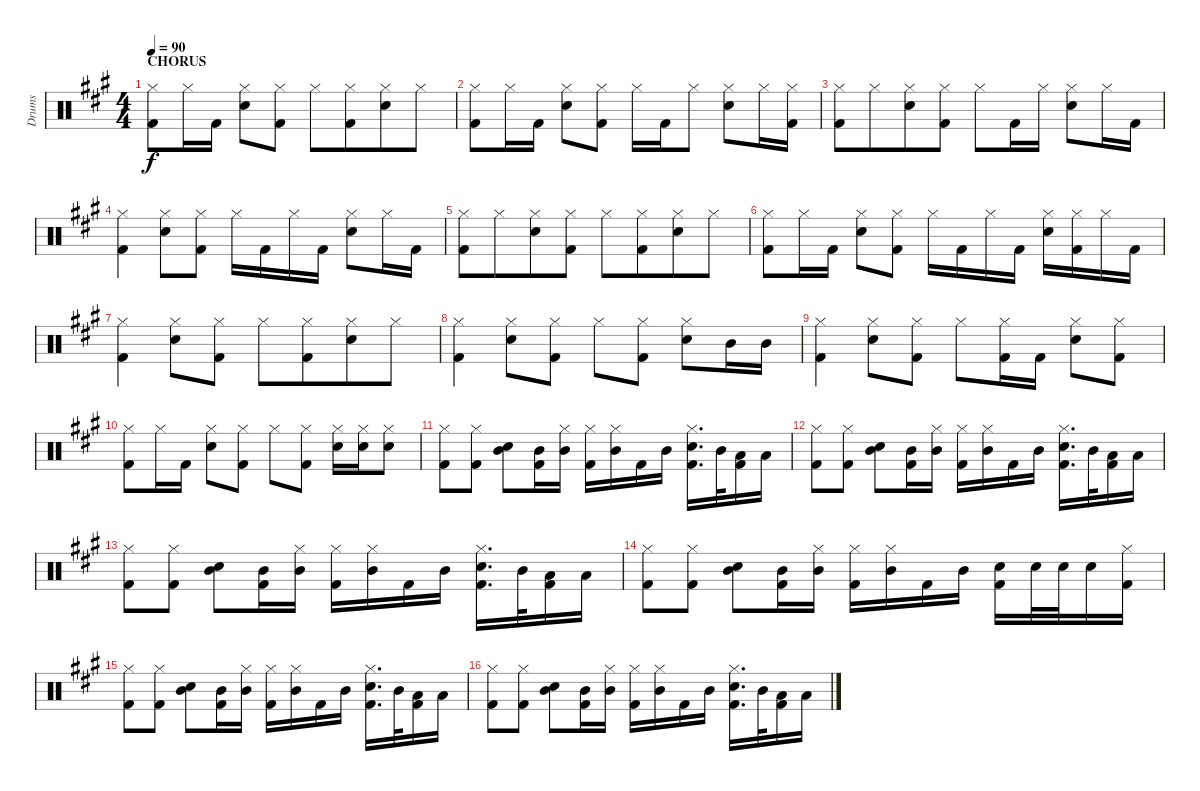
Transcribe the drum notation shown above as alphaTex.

\track ("Drums" "Drums") {instrument percussion}
\staff {score}
\articulation defaults
\ts (4 4)
\section ("" "CHORUS")
\tempo 90
\clef neutral
\ks f#minor
("Hi-Hat (closed)" "Kick (hit) 2").8{dy f} "Hi-Hat (closed)".16 "Kick (hit) 2".16 ("Hi-Hat (closed)" "Electric Snare (hit)").8 ("Hi-Hat (closed)" "Kick (hit) 2").8 "Hi-Hat (closed)".8 ("Hi-Hat (closed)" "Kick (hit) 2").8{beam merge} ("Hi-Hat (closed)" "Electric Snare (hit)").8 "Hi-Hat (closed)".8 |
("Hi-Hat (closed)" "Kick (hit) 2").8 "Hi-Hat (closed)".16 "Kick (hit) 2".16 ("Hi-Hat (closed)" "Electric Snare (hit)").8 ("Hi-Hat (closed)" "Kick (hit) 2").8 "Hi-Hat (closed)".16 "Kick (hit) 2".16 "Hi-Hat (closed)".8{beam split} ("Hi-Hat (closed)" "Electric Snare (hit)").8 "Hi-Hat (closed)".16 ("Hi-Hat (closed)" "Kick (hit) 2").16 |
("Hi-Hat (closed)" "Kick (hit) 2").8 "Hi-Hat (closed)".8{beam merge} ("Hi-Hat (closed)" "Electric Snare (hit)").8 ("Hi-Hat (closed)" "Kick (hit) 2").8 "Hi-Hat (closed)".8 "Kick (hit) 2".16 "Hi-Hat (closed)".16{beam split} ("Hi-Hat (closed)" "Electric Snare (hit)").8 "Hi-Hat (closed)".16 "Kick (hit) 2".16 |
("Hi-Hat (closed)" "Kick (hit) 2").4{beam merge} ("Hi-Hat (closed)" "Electric Snare (hit)").8 ("Hi-Hat (closed)" "Kick (hit) 2").8 "Hi-Hat (closed)".16 "Kick (hit) 2".16 "Hi-Hat (closed)".16 "Kick (hit) 2".16{beam split} ("Hi-Hat (closed)" "Electric Snare (hit)").8 "Hi-Hat (closed)".16 "Kick (hit) 2".16 |
("Hi-Hat (closed)" "Kick (hit) 2").8 "Hi-Hat (closed)".8{beam merge} ("Hi-Hat (closed)" "Electric Snare (hit)").8 ("Hi-Hat (closed)" "Kick (hit) 2").8 "Hi-Hat (closed)".8 ("Hi-Hat (closed)" "Kick (hit) 2").8{beam merge} ("Hi-Hat (closed)" "Electric Snare (hit)").8 "Hi-Hat (closed)".8 |
("Hi-Hat (closed)" "Kick (hit) 2").8 "Hi-Hat (closed)".16 "Kick (hit) 2".16 ("Hi-Hat (closed)" "Electric Snare (hit)").8 ("Hi-Hat (closed)" "Kick (hit) 2").8 "Hi-Hat (closed)".16 "Kick (hit) 2".16 "Hi-Hat (closed)".16 "Kick (hit) 2".16 ("Hi-Hat (closed)" "Electric Snare (hit)").16 ("Hi-Hat (closed)" "Kick (hit) 2").16 "Hi-Hat (closed)".16 "Kick (hit) 2".16 |
("Hi-Hat (closed)" "Kick (hit) 2").4 ("Hi-Hat (closed)" "Electric Snare (hit)").8 ("Hi-Hat (closed)" "Kick (hit) 2").8 "Hi-Hat (closed)".8 ("Hi-Hat (closed)" "Kick (hit) 2").8{beam merge} ("Hi-Hat (closed)" "Electric Snare (hit)").8 "Hi-Hat (closed)".8 |
("Hi-Hat (closed)" "Kick (hit) 2").4 ("Hi-Hat (closed)" "Electric Snare (hit)").8 ("Hi-Hat (closed)" "Kick (hit) 2").8 "Hi-Hat (closed)".8 ("Hi-Hat (closed)" "Kick (hit) 2").8 ("Hi-Hat (closed)" "Electric Snare (hit)").8 "Mid Tom (hit)".16 "Mid Tom (hit)".16 |
("Hi-Hat (closed)" "Kick (hit) 2").4 ("Hi-Hat (closed)" "Electric Snare (hit)").8 ("Hi-Hat (closed)" "Kick (hit) 2").8 "Hi-Hat (closed)".8 ("Hi-Hat (closed)" "Kick (hit) 2").16 "Kick (hit) 2".16 ("Hi-Hat (closed)" "Electric Snare (hit)").8 ("Hi-Hat (closed)" "Kick (hit) 2").8 |
("Hi-Hat (closed)" "Kick (hit) 2").8 "Hi-Hat (closed)".16 "Kick (hit) 2".16 ("Hi-Hat (closed)" "Electric Snare (hit)").8 ("Hi-Hat (closed)" "Kick (hit) 2").8 "Hi-Hat (closed)".8 ("Hi-Hat (closed)" "Kick (hit) 2").8 ("Hi-Hat (closed)" "Electric Snare (hit)").16 ("Hi-Hat (closed)" "Electric Snare (hit)").16 ("Hi-Hat (closed)" "Electric Snare (hit)").8 |
("Hi-Hat (closed)" "Kick (hit) 2").8 ("Hi-Hat (closed)" "Kick (hit) 2").8 ("Mid Tom (hit)" "Electric Snare (hit)").8 ("Mid Tom (hit)" "Kick (hit) 2").16 ("Hi-Hat (closed)" "Mid Tom (hit)").16 ("Hi-Hat (closed)" "Kick (hit) 2").16 ("Hi-Hat (closed)" "Mid Tom (hit)").16 "Kick (hit) 2".16 "Mid Tom (hit)".16 ("Hi-Hat (closed)" "Electric Snare (hit)" "Kick (hit) 2").16{d} "Mid Tom (hit)".32{beam splitsecondary} ("Low Tom (hit)" "Kick (hit) 2").16 "Low Tom (hit)".16 |
("Hi-Hat (closed)" "Kick (hit) 2").8 ("Hi-Hat (closed)" "Kick (hit) 2").8 ("Mid Tom (hit)" "Electric Snare (hit)").8 ("Mid Tom (hit)" "Kick (hit) 2").16 ("Hi-Hat (closed)" "Mid Tom (hit)").16 ("Hi-Hat (closed)" "Kick (hit) 2").16 ("Hi-Hat (closed)" "Mid Tom (hit)").16 "Kick (hit) 2".16 "Mid Tom (hit)".16 ("Hi-Hat (closed)" "Electric Snare (hit)" "Kick (hit) 2").16{d} "Mid Tom (hit)".32{beam splitsecondary} ("Low Tom (hit)" "Kick (hit) 2").16 "Low Tom (hit)".16 |
("Hi-Hat (closed)" "Kick (hit) 2").8 ("Hi-Hat (closed)" "Kick (hit) 2").8 ("Mid Tom (hit)" "Electric Snare (hit)").8 ("Mid Tom (hit)" "Kick (hit) 2").16 ("Hi-Hat (closed)" "Mid Tom (hit)").16 ("Hi-Hat (closed)" "Kick (hit) 2").16 ("Hi-Hat (closed)" "Mid Tom (hit)").16 "Kick (hit) 2".16 "Mid Tom (hit)".16 ("Hi-Hat (closed)" "Electric Snare (hit)" "Kick (hit) 2").16{d} "Mid Tom (hit)".32{beam splitsecondary} ("Low Tom (hit)" "Kick (hit) 2").16 "Low Tom (hit)".16 |
("Hi-Hat (closed)" "Kick (hit) 2").8 ("Hi-Hat (closed)" "Kick (hit) 2").8 ("Mid Tom (hit)" "Electric Snare (hit)").8 ("Mid Tom (hit)" "Kick (hit) 2").16 ("Hi-Hat (closed)" "Mid Tom (hit)").16 ("Hi-Hat (closed)" "Kick (hit) 2").16 ("Hi-Hat (closed)" "Mid Tom (hit)").16 "Kick (hit) 2".16 "Mid Tom (hit)".16 ("Electric Snare (hit)" "Kick (hit) 2").16 "Electric Snare (hit)".32 "Electric Snare (hit)".32{beam splitsecondary} "Electric Snare (hit)".16 ("Hi-Hat (closed)" "Kick (hit) 2").16 |
("Hi-Hat (closed)" "Kick (hit) 2").8 ("Hi-Hat (closed)" "Kick (hit) 2").8 ("Mid Tom (hit)" "Electric Snare (hit)").8 ("Mid Tom (hit)" "Kick (hit) 2").16 ("Hi-Hat (closed)" "Mid Tom (hit)").16 ("Hi-Hat (closed)" "Kick (hit) 2").16 ("Hi-Hat (closed)" "Mid Tom (hit)").16 "Kick (hit) 2".16 "Mid Tom (hit)".16 ("Hi-Hat (closed)" "Electric Snare (hit)" "Kick (hit) 2").16{d} "Mid Tom (hit)".32{beam splitsecondary} ("Low Tom (hit)" "Kick (hit) 2").16 "Low Tom (hit)".16 |
("Hi-Hat (closed)" "Kick (hit) 2").8 ("Hi-Hat (closed)" "Kick (hit) 2").8 ("Mid Tom (hit)" "Electric Snare (hit)").8 ("Mid Tom (hit)" "Kick (hit) 2").16 ("Hi-Hat (closed)" "Mid Tom (hit)").16 ("Hi-Hat (closed)" "Kick (hit) 2").16 ("Hi-Hat (closed)" "Mid Tom (hit)").16 "Kick (hit) 2".16 "Mid Tom (hit)".16 ("Hi-Hat (closed)" "Electric Snare (hit)" "Kick (hit) 2").16{d} "Mid Tom (hit)".32{beam splitsecondary} ("Low Tom (hit)" "Kick (hit) 2").16 "Low Tom (hit)".16
